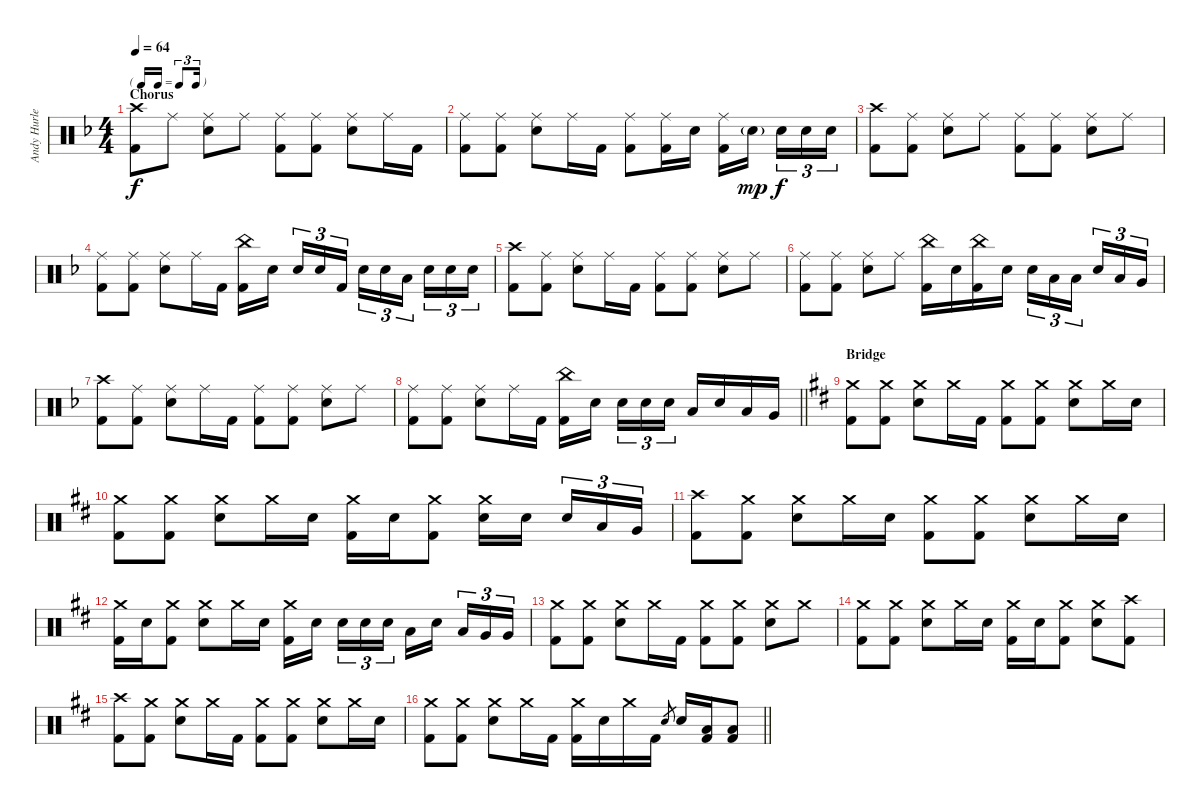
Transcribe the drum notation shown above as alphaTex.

\track ("Andy Hurley" "Andy Hurle") {instrument percussion}
\staff {score}
\articulation defaults
\ts (4 4)
\tf triplet16th
\section ("" "Chorus")
\tempo 64
\clef neutral
\ks f
("Crash high (hit)" "Kick (hit) 2").8{dy f} "Ride (middle)".8 ("Ride (middle)" "Snare (hit) 2").8 "Ride (middle)".8 ("Ride (middle)" "Kick (hit) 2").8 ("Ride (middle)" "Kick (hit) 2").8 ("Ride (middle)" "Snare (hit) 2").8 "Ride (middle)".16 "Kick (hit) 2".16 |
("Ride (middle)" "Kick (hit) 2").8 ("Ride (middle)" "Kick (hit) 2").8 ("Ride (middle)" "Snare (hit) 2").8 "Ride (middle)".16 "Kick (hit) 2".16 ("Ride (middle)" "Kick (hit) 2").8 ("Ride (middle)" "Kick (hit) 2").16 "Snare (hit) 2".16 ("Ride (middle)" "Kick (hit) 2").16 "Snare (hit) 2"{g}.16{dy mp beam splitsecondary} "Snare (hit) 2".16{tu (3 2) dy f} "Snare (hit) 2".16{tu (3 2)} "Snare (hit) 2".16{tu (3 2)} |
("Crash high (hit)" "Kick (hit) 2").8 ("Ride (middle)" "Kick (hit) 2").8 ("Ride (middle)" "Snare (hit) 2").8 "Ride (middle)".8 ("Ride (middle)" "Kick (hit) 2").8 ("Ride (middle)" "Kick (hit) 2").8 ("Ride (middle)" "Snare (hit) 2").8 "Ride (middle)".8 |
("Ride (middle)" "Kick (hit) 2").8 ("Ride (middle)" "Kick (hit) 2").8 ("Ride (middle)" "Snare (hit) 2").8 "Ride (middle)".16 "Kick (hit) 2".16 ("China (hit)" "Kick (hit) 2").16 "Snare (hit) 2".16{beam splitsecondary} "Snare (hit) 2".16{tu (3 2)} "Snare (hit) 2".16{tu (3 2)} "Kick (hit) 2".16{tu (3 2)} "Snare (hit) 2".16{tu (3 2)} "Snare (hit) 2".16{tu (3 2)} "Low Tom (hit)".16{tu (3 2) beam splitsecondary} "Snare (hit) 2".16{tu (3 2)} "Snare (hit) 2".16{tu (3 2)} "Snare (hit) 2".16{tu (3 2)} |
("Crash high (hit)" "Kick (hit) 2").8 ("Ride (middle)" "Kick (hit) 2").8 ("Ride (middle)" "Snare (hit) 2").8 "Ride (middle)".16 "Kick (hit) 2".16 ("Ride (middle)" "Kick (hit) 2").8 ("Ride (middle)" "Kick (hit) 2").8 ("Ride (middle)" "Snare (hit) 2").8 "Ride (middle)".8 |
("Ride (middle)" "Kick (hit) 2").8 ("Ride (middle)" "Kick (hit) 2").8 ("Ride (middle)" "Snare (hit) 2").8 "Ride (middle)".8 ("China (hit)" "Kick (hit) 2").16 "Snare (hit) 2".16 ("China (hit)" "Kick (hit) 2").16 "Snare (hit) 2".16 "Snare (hit) 2".16{tu (3 2)} "Low Tom (hit)".16{tu (3 2)} "Low Tom (hit)".16{tu (3 2) beam splitsecondary} "Snare (hit) 2".16{tu (3 2)} "Low Tom (hit)".16{tu (3 2)} "Very Low Tom (hit)".16{tu (3 2)} |
("Crash high (hit)" "Kick (hit) 2").8 ("Ride (middle)" "Kick (hit) 2").8 ("Ride (middle)" "Snare (hit) 2").8 "Ride (middle)".16 "Kick (hit) 2".16 ("Ride (middle)" "Kick (hit) 2").8 ("Ride (middle)" "Kick (hit) 2").8 ("Ride (middle)" "Snare (hit) 2").8 "Ride (middle)".8 |
\barLineRight lightlight
("Ride (middle)" "Kick (hit) 2").8 ("Ride (middle)" "Kick (hit) 2").8 ("Ride (middle)" "Snare (hit) 2").8 "Ride (middle)".16 "Kick (hit) 2".16 ("China (hit)" "Kick (hit) 2").16 "Snare (hit) 2".16{beam splitsecondary} "Snare (hit) 2".16{tu (3 2)} "Snare (hit) 2".16{tu (3 2)} "Snare (hit) 2".16{tu (3 2)} "Low Tom (hit)".16 "Snare (hit) 2".16 "Low Tom (hit)".16 "Very Low Tom (hit)".16 |
\section ("" "Bridge")
\ks d
("Crash medium (hit)" "Kick (hit) 2").8 ("Crash medium (hit)" "Kick (hit) 2").8 ("Crash medium (hit)" "Snare (hit) 2").8 "Crash medium (hit)".16 "Kick (hit) 2".16 ("Crash medium (hit)" "Kick (hit) 2").8 ("Crash medium (hit)" "Kick (hit) 2").8 ("Crash medium (hit)" "Snare (hit) 2").8 "Crash medium (hit)".16 "Snare (hit) 2".16 |
("Crash medium (hit)" "Kick (hit) 2").8 ("Crash medium (hit)" "Kick (hit) 2").8 ("Crash medium (hit)" "Snare (hit) 2").8 "Crash medium (hit)".16 "Snare (hit) 2".16 ("Crash medium (hit)" "Kick (hit) 2").16 "Snare (hit) 2".16 ("Crash medium (hit)" "Kick (hit) 2").8 ("Crash medium (hit)" "Snare (hit) 2").16 "Snare (hit) 2".16{beam splitsecondary} "Snare (hit) 2".16{tu (3 2)} "Low Tom (hit)".16{tu (3 2)} "Very Low Tom (hit)".16{tu (3 2)} |
("Crash high (hit)" "Kick (hit) 2").8 ("Crash medium (hit)" "Kick (hit) 2").8 ("Crash medium (hit)" "Snare (hit) 2").8 "Crash medium (hit)".16 "Snare (hit) 2".16 ("Crash medium (hit)" "Kick (hit) 2").8 ("Crash medium (hit)" "Kick (hit) 2").8 ("Crash medium (hit)" "Snare (hit) 2").8 "Crash medium (hit)".16 "Snare (hit) 2".16 |
("Crash medium (hit)" "Kick (hit) 2").16 "Snare (hit) 2".16 ("Crash medium (hit)" "Kick (hit) 2").8 ("Crash medium (hit)" "Snare (hit) 2").8 "Crash medium (hit)".16 "Snare (hit) 2".16 ("Crash medium (hit)" "Kick (hit) 2").16 "Snare (hit) 2".16{beam splitsecondary} "Snare (hit) 2".16{tu (3 2)} "Snare (hit) 2".16{tu (3 2)} "Snare (hit) 2".16{tu (3 2)} "Low Tom (hit)".16 "Snare (hit) 2".16{beam splitsecondary} "Low Tom (hit)".16{tu (3 2)} "Very Low Tom (hit)".16{tu (3 2)} "Very Low Tom (hit)".16{tu (3 2)} |
("Crash medium (hit)" "Kick (hit) 2").8 ("Crash medium (hit)" "Kick (hit) 2").8 ("Crash medium (hit)" "Snare (hit) 2").8 "Crash medium (hit)".16 "Kick (hit) 2".16 ("Crash medium (hit)" "Kick (hit) 2").8 ("Crash medium (hit)" "Kick (hit) 2").8 ("Crash medium (hit)" "Snare (hit) 2").8 "Crash medium (hit)".8 |
("Crash medium (hit)" "Kick (hit) 2").8 ("Crash medium (hit)" "Kick (hit) 2").8 ("Crash medium (hit)" "Snare (hit) 2").8 "Crash medium (hit)".16 "Snare (hit) 2".16 ("Crash medium (hit)" "Kick (hit) 2").16 "Snare (hit) 2".16 ("Crash medium (hit)" "Kick (hit) 2").8 ("Crash medium (hit)" "Snare (hit) 2").8 ("Crash high (hit)" "Kick (hit) 2").8 |
("Crash high (hit)" "Kick (hit) 2").8 ("Crash medium (hit)" "Kick (hit) 2").8 ("Crash medium (hit)" "Snare (hit) 2").8 "Crash medium (hit)".16 "Kick (hit) 2".16 ("Crash medium (hit)" "Kick (hit) 2").8 ("Crash medium (hit)" "Kick (hit) 2").8 ("Crash medium (hit)" "Snare (hit) 2").8 "Crash medium (hit)".16 "Snare (hit) 2".16 |
\barLineRight lightlight
("Crash medium (hit)" "Kick (hit) 2").8 ("Crash medium (hit)" "Kick (hit) 2").8 ("Crash medium (hit)" "Snare (hit) 2").8 "Crash medium (hit)".16 "Kick (hit) 2".16 ("Crash medium (hit)" "Kick (hit) 2").16 "Snare (hit) 2".16 "Crash medium (hit)".16 "Kick (hit) 2".16 "Snare (hit) 2".8{gr} "Snare (hit) 2".16 ("Low Tom (hit)" "Kick (hit) 2").16 ("Low Tom (hit)" "Kick (hit) 2").8
